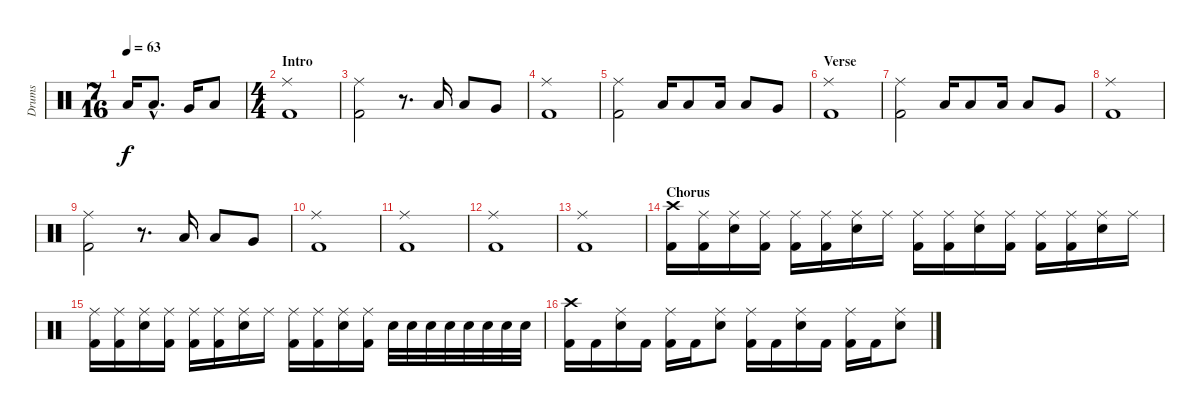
\track ("Drums" "Drums") {instrument percussion}
\staff {score}
\articulation defaults
\ts (7 16)
\tempo 63
\clef neutral
\ks c "Low Floor Tom (hit)".16{dy f} "Low Tom (hit)"{hac}.8{d} "Very Low Tom (hit)".16 "Low Floor Tom (hit)".8
|
\ts (4 4)
\section ("" "Intro")
("Ride (middle)" "Kick (hit) 2").1 |
("Ride (middle)" "Kick (hit) 2").2 r.8{d} "Low Floor Tom (hit)".16 "Low Tom (hit)".8 "Very Low Tom (hit)".8 |
("Ride (middle)" "Kick (hit) 2").1 |
("Ride (middle)" "Kick (hit) 2").2 "Low Floor Tom (hit)".16 "Low Tom (hit)".8 "Low Floor Tom (hit)".16 "Low Tom (hit)".8 "Very Low Tom (hit)".8 |
\section ("" "Verse")
("Ride (middle)" "Kick (hit) 2").1 |
("Ride (middle)" "Kick (hit) 2").2 "Low Floor Tom (hit)".16 "Low Tom (hit)".8 "Low Floor Tom (hit)".16 "Low Tom (hit)".8 "Very Low Tom (hit)".8 |
("Ride (middle)" "Kick (hit) 2").1 |
("Ride (middle)" "Kick (hit) 2").2 r.8{d} "Low Floor Tom (hit)".16 "Low Tom (hit)".8 "Very Low Tom (hit)".8 |
("Ride (middle)" "Kick (hit) 2").1 |
("Ride (middle)" "Kick (hit) 2").1 |
("Ride (middle)" "Kick (hit) 2").1 |
("Ride (middle)" "Kick (hit) 2").1 |
\section ("" "Chorus")
("Crash high (hit)" "Kick (hit) 2").16 ("Ride (middle)" "Kick (hit) 2").16 ("Ride (middle)" "Electric Snare (hit)").16 ("Ride (middle)" "Kick (hit) 2").16 ("Ride (middle)" "Kick (hit) 2").16 ("Ride (middle)" "Kick (hit) 2").16 ("Ride (middle)" "Electric Snare (hit)").16 "Ride (middle)".16 ("Ride (middle)" "Kick (hit) 2").16 ("Ride (middle)" "Kick (hit) 2").16 ("Ride (middle)" "Electric Snare (hit)").16 ("Ride (middle)" "Kick (hit) 2").16 ("Ride (middle)" "Kick (hit) 2").16 ("Ride (middle)" "Kick (hit) 2").16 ("Ride (middle)" "Electric Snare (hit)").16 "Ride (middle)".16 |
("Ride (middle)" "Kick (hit) 2").16 ("Ride (middle)" "Kick (hit) 2").16 ("Ride (middle)" "Electric Snare (hit)").16 ("Ride (middle)" "Kick (hit) 2").16 ("Ride (middle)" "Kick (hit) 2").16 ("Ride (middle)" "Kick (hit) 2").16 ("Ride (middle)" "Electric Snare (hit)").16 "Ride (middle)".16 ("Ride (middle)" "Kick (hit) 2").16 ("Ride (middle)" "Kick (hit) 2").16 ("Ride (middle)" "Electric Snare (hit)").16 ("Ride (middle)" "Kick (hit) 2").16 "Electric Snare (hit)".32 "Electric Snare (hit)".32 "Electric Snare (hit)".32 "Electric Snare (hit)".32 "Electric Snare (hit)".32 "Electric Snare (hit)".32 "Electric Snare (hit)".32 "Electric Snare (hit)".32 |
("Crash high (hit)" "Kick (hit) 2").16 "Kick (hit) 2".16 ("Ride (middle)" "Electric Snare (hit)").16 "Kick (hit) 2".16 ("Ride (middle)" "Kick (hit) 2").16 "Kick (hit) 2".16 ("Ride (middle)" "Electric Snare (hit)").8 ("Ride (middle)" "Kick (hit) 2").16 "Kick (hit) 2".16 ("Ride (middle)" "Electric Snare (hit)").16 "Kick (hit) 2".16 ("Ride (middle)" "Kick (hit) 2").16 "Kick (hit) 2".16 ("Ride (middle)" "Electric Snare (hit)").8
